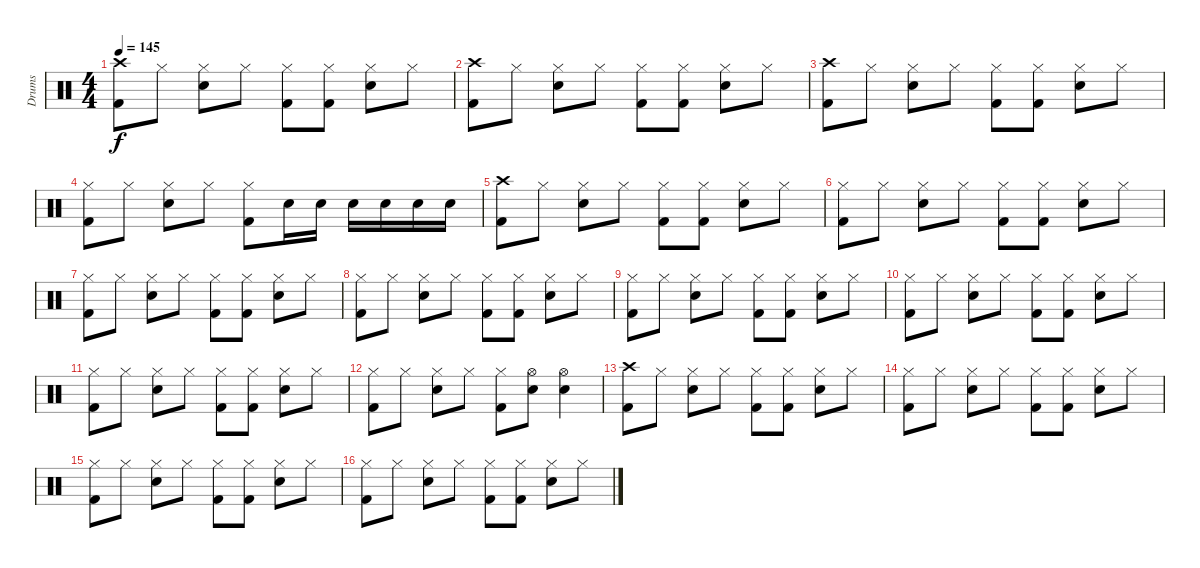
\track ("Drums" "Drums") {instrument percussion}
\staff {score}
\articulation defaults
\ts (4 4)
\tempo 145
\clef neutral
\ks c
("Crash high (hit)" "Kick (hit) 2").8{dy f} "Hi-Hat (closed)".8 ("Hi-Hat (closed)" "Electric Snare (hit)").8 "Hi-Hat (closed)".8 ("Hi-Hat (closed)" "Kick (hit) 2").8 ("Hi-Hat (closed)" "Kick (hit) 2").8 ("Hi-Hat (closed)" "Electric Snare (hit)").8 "Hi-Hat (closed)".8 |
("Crash high (hit)" "Kick (hit) 2").8 "Hi-Hat (closed)".8 ("Hi-Hat (closed)" "Electric Snare (hit)").8 "Hi-Hat (closed)".8 ("Hi-Hat (closed)" "Kick (hit) 2").8 ("Hi-Hat (closed)" "Kick (hit) 2").8 ("Hi-Hat (closed)" "Electric Snare (hit)").8 "Hi-Hat (closed)".8 |
("Crash high (hit)" "Kick (hit) 2").8 "Hi-Hat (closed)".8 ("Hi-Hat (closed)" "Electric Snare (hit)").8 "Hi-Hat (closed)".8 ("Hi-Hat (closed)" "Kick (hit) 2").8 ("Hi-Hat (closed)" "Kick (hit) 2").8 ("Hi-Hat (closed)" "Electric Snare (hit)").8 "Hi-Hat (closed)".8 |
("Hi-Hat (closed)" "Kick (hit) 2").8 "Hi-Hat (closed)".8 ("Hi-Hat (closed)" "Electric Snare (hit)").8 "Hi-Hat (closed)".8 ("Hi-Hat (closed)" "Kick (hit) 2").8 "Electric Snare (hit)".16 "Electric Snare (hit)".16 "Electric Snare (hit)".16 "Electric Snare (hit)".16 "Electric Snare (hit)".16 "Electric Snare (hit)".16 |
("Crash high (hit)" "Kick (hit) 2").8 "Hi-Hat (closed)".8 ("Hi-Hat (closed)" "Electric Snare (hit)").8 "Hi-Hat (closed)".8 ("Hi-Hat (closed)" "Kick (hit) 2").8 ("Hi-Hat (closed)" "Kick (hit) 2").8 ("Hi-Hat (closed)" "Electric Snare (hit)").8 "Hi-Hat (closed)".8 |
("Hi-Hat (closed)" "Kick (hit) 2").8 "Hi-Hat (closed)".8 ("Hi-Hat (closed)" "Electric Snare (hit)").8 "Hi-Hat (closed)".8 ("Hi-Hat (closed)" "Kick (hit) 2").8 ("Hi-Hat (closed)" "Kick (hit) 2").8 ("Hi-Hat (closed)" "Electric Snare (hit)").8 "Hi-Hat (closed)".8 |
("Hi-Hat (closed)" "Kick (hit) 2").8 "Hi-Hat (closed)".8 ("Hi-Hat (closed)" "Electric Snare (hit)").8 "Hi-Hat (closed)".8 ("Hi-Hat (closed)" "Kick (hit) 2").8 ("Hi-Hat (closed)" "Kick (hit) 2").8 ("Hi-Hat (closed)" "Electric Snare (hit)").8 "Hi-Hat (closed)".8 |
("Hi-Hat (closed)" "Kick (hit) 2").8 "Hi-Hat (closed)".8 ("Hi-Hat (closed)" "Electric Snare (hit)").8 "Hi-Hat (closed)".8 ("Hi-Hat (closed)" "Kick (hit) 2").8 ("Hi-Hat (closed)" "Kick (hit) 2").8 ("Hi-Hat (closed)" "Electric Snare (hit)").8 "Hi-Hat (closed)".8 |
("Hi-Hat (closed)" "Kick (hit) 2").8 "Hi-Hat (closed)".8 ("Hi-Hat (closed)" "Electric Snare (hit)").8 "Hi-Hat (closed)".8 ("Hi-Hat (closed)" "Kick (hit) 2").8 ("Hi-Hat (closed)" "Kick (hit) 2").8 ("Hi-Hat (closed)" "Electric Snare (hit)").8 "Hi-Hat (closed)".8 |
("Hi-Hat (closed)" "Kick (hit) 2").8 "Hi-Hat (closed)".8 ("Hi-Hat (closed)" "Electric Snare (hit)").8 "Hi-Hat (closed)".8 ("Hi-Hat (closed)" "Kick (hit) 2").8 ("Hi-Hat (closed)" "Kick (hit) 2").8 ("Hi-Hat (closed)" "Electric Snare (hit)").8 "Hi-Hat (closed)".8 |
("Hi-Hat (closed)" "Kick (hit) 2").8 "Hi-Hat (closed)".8 ("Hi-Hat (closed)" "Electric Snare (hit)").8 "Hi-Hat (closed)".8 ("Hi-Hat (closed)" "Kick (hit) 2").8 ("Hi-Hat (closed)" "Kick (hit) 2").8 ("Hi-Hat (closed)" "Electric Snare (hit)").8 "Hi-Hat (closed)".8 |
("Hi-Hat (closed)" "Kick (hit) 2").8 "Hi-Hat (closed)".8 ("Hi-Hat (closed)" "Electric Snare (hit)").8 "Hi-Hat (closed)".8 ("Hi-Hat (closed)" "Kick (hit) 2").8 ("Hi-Hat (open)" "Electric Snare (hit)").8 ("Hi-Hat (open)" "Electric Snare (hit)").4 |
("Crash high (hit)" "Kick (hit) 2").8 "Hi-Hat (closed)".8 ("Hi-Hat (closed)" "Electric Snare (hit)").8 "Hi-Hat (closed)".8 ("Hi-Hat (closed)" "Kick (hit) 2").8 ("Hi-Hat (closed)" "Kick (hit) 2").8 ("Hi-Hat (closed)" "Electric Snare (hit)").8 "Hi-Hat (closed)".8 |
("Hi-Hat (closed)" "Kick (hit) 2").8 "Hi-Hat (closed)".8 ("Hi-Hat (closed)" "Electric Snare (hit)").8 "Hi-Hat (closed)".8 ("Hi-Hat (closed)" "Kick (hit) 2").8 ("Hi-Hat (closed)" "Kick (hit) 2").8 ("Hi-Hat (closed)" "Electric Snare (hit)").8 "Hi-Hat (closed)".8 |
("Hi-Hat (closed)" "Kick (hit) 2").8 "Hi-Hat (closed)".8 ("Hi-Hat (closed)" "Electric Snare (hit)").8 "Hi-Hat (closed)".8 ("Hi-Hat (closed)" "Kick (hit) 2").8 ("Hi-Hat (closed)" "Kick (hit) 2").8 ("Hi-Hat (closed)" "Electric Snare (hit)").8 "Hi-Hat (closed)".8 |
("Hi-Hat (closed)" "Kick (hit) 2").8 "Hi-Hat (closed)".8 ("Hi-Hat (closed)" "Electric Snare (hit)").8 "Hi-Hat (closed)".8 ("Hi-Hat (closed)" "Kick (hit) 2").8 ("Hi-Hat (closed)" "Kick (hit) 2").8 ("Hi-Hat (closed)" "Electric Snare (hit)").8 "Hi-Hat (closed)".8
